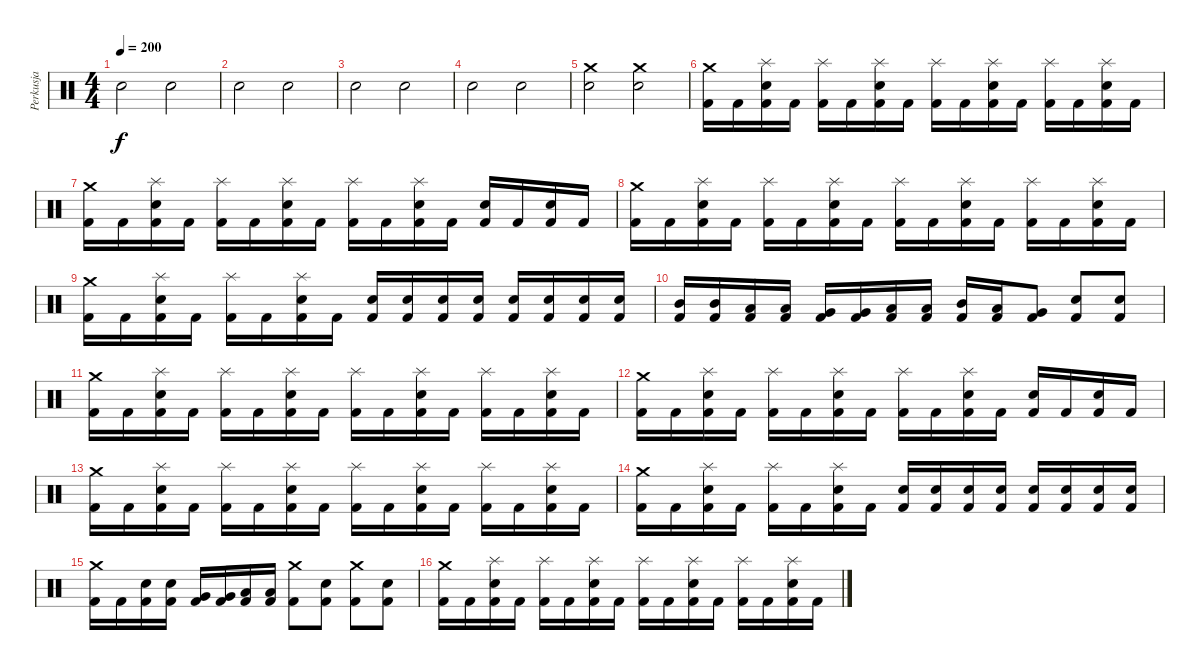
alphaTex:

\track ("Perkusja" "Perkusja") {instrument percussion}
\staff {score}
\articulation defaults
\ts (4 4)
\tempo 200
\clef neutral
\ks c "Electric Snare (hit)".2{dy f} "Electric Snare (hit)".2
|
"Electric Snare (hit)".2 "Electric Snare (hit)".2 |
"Electric Snare (hit)".2 "Electric Snare (hit)".2 |
"Electric Snare (hit)".2 "Electric Snare (hit)".2 |
("Crash medium (hit)" "Electric Snare (hit)").2 ("Crash medium (hit)" "Electric Snare (hit)").2 |
("Crash medium (hit)" "Kick (hit) 2").16 "Kick (hit) 2".16 ("Splash (hit)" "Electric Snare (hit)" "Kick (hit) 2").16 "Kick (hit) 2".16 ("Splash (hit)" "Kick (hit) 2").16 "Kick (hit) 2".16 ("Splash (hit)" "Electric Snare (hit)" "Kick (hit) 2").16 "Kick (hit) 2".16 ("Splash (hit)" "Kick (hit) 2").16 "Kick (hit) 2".16 ("Splash (hit)" "Electric Snare (hit)" "Kick (hit) 2").16 "Kick (hit) 2".16 ("Splash (hit)" "Kick (hit) 2").16 "Kick (hit) 2".16 ("Splash (hit)" "Electric Snare (hit)" "Kick (hit) 2").16 "Kick (hit) 2".16 |
("Crash medium (hit)" "Kick (hit) 2").16 "Kick (hit) 2".16 ("Splash (hit)" "Electric Snare (hit)" "Kick (hit) 2").16 "Kick (hit) 2".16 ("Splash (hit)" "Kick (hit) 2").16 "Kick (hit) 2".16 ("Splash (hit)" "Electric Snare (hit)" "Kick (hit) 2").16 "Kick (hit) 2".16 ("Splash (hit)" "Kick (hit) 2").16 "Kick (hit) 2".16 ("Splash (hit)" "Electric Snare (hit)" "Kick (hit) 2").16 "Kick (hit) 2".16 ("Electric Snare (hit)" "Kick (hit) 2").16 "Kick (hit) 2".16 ("Electric Snare (hit)" "Kick (hit) 2").16 "Kick (hit) 2".16 |
("Crash medium (hit)" "Kick (hit) 2").16 "Kick (hit) 2".16 ("Splash (hit)" "Electric Snare (hit)" "Kick (hit) 2").16 "Kick (hit) 2".16 ("Splash (hit)" "Kick (hit) 2").16 "Kick (hit) 2".16 ("Splash (hit)" "Electric Snare (hit)" "Kick (hit) 2").16 "Kick (hit) 2".16 ("Splash (hit)" "Kick (hit) 2").16 "Kick (hit) 2".16 ("Splash (hit)" "Electric Snare (hit)" "Kick (hit) 2").16 "Kick (hit) 2".16 ("Splash (hit)" "Kick (hit) 2").16 "Kick (hit) 2".16 ("Splash (hit)" "Electric Snare (hit)" "Kick (hit) 2").16 "Kick (hit) 2".16 |
("Crash medium (hit)" "Kick (hit) 2").16 "Kick (hit) 2".16 ("Splash (hit)" "Electric Snare (hit)" "Kick (hit) 2").16 "Kick (hit) 2".16 ("Splash (hit)" "Kick (hit) 2").16 "Kick (hit) 2".16 ("Splash (hit)" "Electric Snare (hit)" "Kick (hit) 2").16 "Kick (hit) 2".16 ("Snare (hit) 2" "Kick (hit) 2").16 ("Snare (hit) 2" "Kick (hit) 2").16 ("Snare (hit) 2" "Kick (hit) 2").16 ("Snare (hit) 2" "Kick (hit) 2").16 ("Electric Snare (hit)" "Kick (hit) 2").16 ("Electric Snare (hit)" "Kick (hit) 2").16 ("Electric Snare (hit)" "Kick (hit) 2").16 ("Electric Snare (hit)" "Kick (hit) 2").16 |
("Mid Tom (hit)" "Kick (hit) 2").16 ("Mid Tom (hit)" "Kick (hit) 2").16 ("Low Tom (hit)" "Kick (hit) 2").16 ("Low Tom (hit)" "Kick (hit) 2").16 ("Very Low Tom (hit)" "Kick (hit) 2").16 ("Very Low Tom (hit)" "Kick (hit) 2").16 ("Low Floor Tom (hit)" "Kick (hit) 2").16 ("Low Floor Tom (hit)" "Kick (hit) 2").16 ("Mid Tom (hit)" "Kick (hit) 2").16 ("Low Tom (hit)" "Kick (hit) 2").16 ("Very Low Tom (hit)" "Kick (hit) 2").8 ("Electric Snare (hit)" "Kick (hit) 2").8 ("Electric Snare (hit)" "Kick (hit) 2").8 |
("Crash medium (hit)" "Kick (hit) 2").16 "Kick (hit) 2".16 ("Splash (hit)" "Electric Snare (hit)" "Kick (hit) 2").16 "Kick (hit) 2".16 ("Splash (hit)" "Kick (hit) 2").16 "Kick (hit) 2".16 ("Splash (hit)" "Electric Snare (hit)" "Kick (hit) 2").16 "Kick (hit) 2".16 ("Splash (hit)" "Kick (hit) 2").16 "Kick (hit) 2".16 ("Splash (hit)" "Electric Snare (hit)" "Kick (hit) 2").16 "Kick (hit) 2".16 ("Splash (hit)" "Kick (hit) 2").16 "Kick (hit) 2".16 ("Splash (hit)" "Electric Snare (hit)" "Kick (hit) 2").16 "Kick (hit) 2".16 |
("Crash medium (hit)" "Kick (hit) 2").16 "Kick (hit) 2".16 ("Splash (hit)" "Electric Snare (hit)" "Kick (hit) 2").16 "Kick (hit) 2".16 ("Splash (hit)" "Kick (hit) 2").16 "Kick (hit) 2".16 ("Splash (hit)" "Electric Snare (hit)" "Kick (hit) 2").16 "Kick (hit) 2".16 ("Splash (hit)" "Kick (hit) 2").16 "Kick (hit) 2".16 ("Splash (hit)" "Electric Snare (hit)" "Kick (hit) 2").16 "Kick (hit) 2".16 ("Electric Snare (hit)" "Kick (hit) 2").16 "Kick (hit) 2".16 ("Electric Snare (hit)" "Kick (hit) 2").16 "Kick (hit) 2".16 |
("Crash medium (hit)" "Kick (hit) 2").16 "Kick (hit) 2".16 ("Splash (hit)" "Electric Snare (hit)" "Kick (hit) 2").16 "Kick (hit) 2".16 ("Splash (hit)" "Kick (hit) 2").16 "Kick (hit) 2".16 ("Splash (hit)" "Electric Snare (hit)" "Kick (hit) 2").16 "Kick (hit) 2".16 ("Splash (hit)" "Kick (hit) 2").16 "Kick (hit) 2".16 ("Splash (hit)" "Electric Snare (hit)" "Kick (hit) 2").16 "Kick (hit) 2".16 ("Splash (hit)" "Kick (hit) 2").16 "Kick (hit) 2".16 ("Splash (hit)" "Electric Snare (hit)" "Kick (hit) 2").16 "Kick (hit) 2".16 |
("Crash medium (hit)" "Kick (hit) 2").16 "Kick (hit) 2".16 ("Splash (hit)" "Electric Snare (hit)" "Kick (hit) 2").16 "Kick (hit) 2".16 ("Splash (hit)" "Kick (hit) 2").16 "Kick (hit) 2".16 ("Splash (hit)" "Electric Snare (hit)" "Kick (hit) 2").16 "Kick (hit) 2".16 ("Snare (hit) 2" "Kick (hit) 2").16 ("Snare (hit) 2" "Kick (hit) 2").16 ("Snare (hit) 2" "Kick (hit) 2").16 ("Snare (hit) 2" "Kick (hit) 2").16 ("Electric Snare (hit)" "Kick (hit) 2").16 ("Electric Snare (hit)" "Kick (hit) 2").16 ("Electric Snare (hit)" "Kick (hit) 2").16 ("Electric Snare (hit)" "Kick (hit) 2").16 |
("Crash medium (hit)" "Kick (hit) 2").16 "Kick (hit) 2".16 ("Electric Snare (hit)" "Kick (hit) 2").16 ("Electric Snare (hit)" "Kick (hit) 2").16 ("Very Low Tom (hit)" "Kick (hit) 2").16 ("Very Low Tom (hit)" "Kick (hit) 2").16 ("Low Floor Tom (hit)" "Kick (hit) 2").16 ("Low Floor Tom (hit)" "Kick (hit) 2").16 ("Crash medium (hit)" "Kick (hit) 2").8 ("Electric Snare (hit)" "Kick (hit) 2").8 ("Crash medium (hit)" "Kick (hit) 2").8 ("Electric Snare (hit)" "Kick (hit) 2").8 |
("Crash medium (hit)" "Kick (hit) 2").16 "Kick (hit) 2".16 ("Splash (hit)" "Electric Snare (hit)" "Kick (hit) 2").16 "Kick (hit) 2".16 ("Splash (hit)" "Kick (hit) 2").16 "Kick (hit) 2".16 ("Splash (hit)" "Electric Snare (hit)" "Kick (hit) 2").16 "Kick (hit) 2".16 ("Splash (hit)" "Kick (hit) 2").16 "Kick (hit) 2".16 ("Splash (hit)" "Electric Snare (hit)" "Kick (hit) 2").16 "Kick (hit) 2".16 ("Splash (hit)" "Kick (hit) 2").16 "Kick (hit) 2".16 ("Splash (hit)" "Electric Snare (hit)" "Kick (hit) 2").16 "Kick (hit) 2".16
